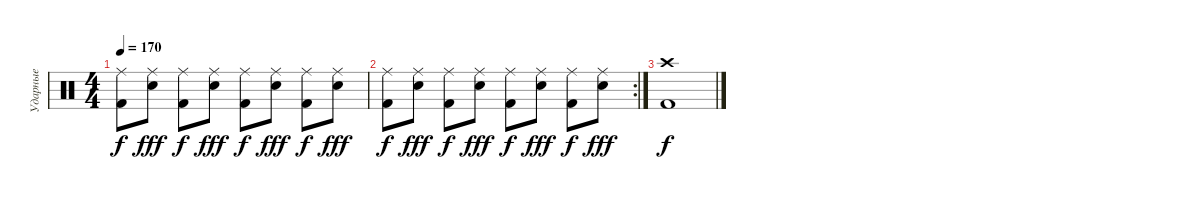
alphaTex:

\track ("Ударные" "Ударные") {instrument percussion}
\staff {score}
\articulation defaults
\ts (4 4)
\tempo 170
\clef neutral
\ks c
("Kick (hit) 2" "Ride (middle)").8{dy f} ("Snare (hit) 2" "Ride (middle)").8{dy fff} ("Kick (hit) 2" "Ride (middle)").8{dy f} ("Snare (hit) 2" "Ride (middle)").8{dy fff} ("Kick (hit) 2" "Ride (middle)").8{dy f} ("Snare (hit) 2" "Ride (middle)").8{dy fff} ("Kick (hit) 2" "Ride (middle)").8{dy f} ("Snare (hit) 2" "Ride (middle)").8{dy fff} |
\rc 2
("Kick (hit) 2" "Ride (middle)").8{dy f} ("Snare (hit) 2" "Ride (middle)").8{dy fff} ("Kick (hit) 2" "Ride (middle)").8{dy f} ("Snare (hit) 2" "Ride (middle)").8{dy fff} ("Kick (hit) 2" "Ride (middle)").8{dy f} ("Snare (hit) 2" "Ride (middle)").8{dy fff} ("Kick (hit) 2" "Ride (middle)").8{dy f} ("Snare (hit) 2" "Ride (middle)").8{dy fff} |
("Kick (hit) 2" "Crash high (hit)").1{dy f}
